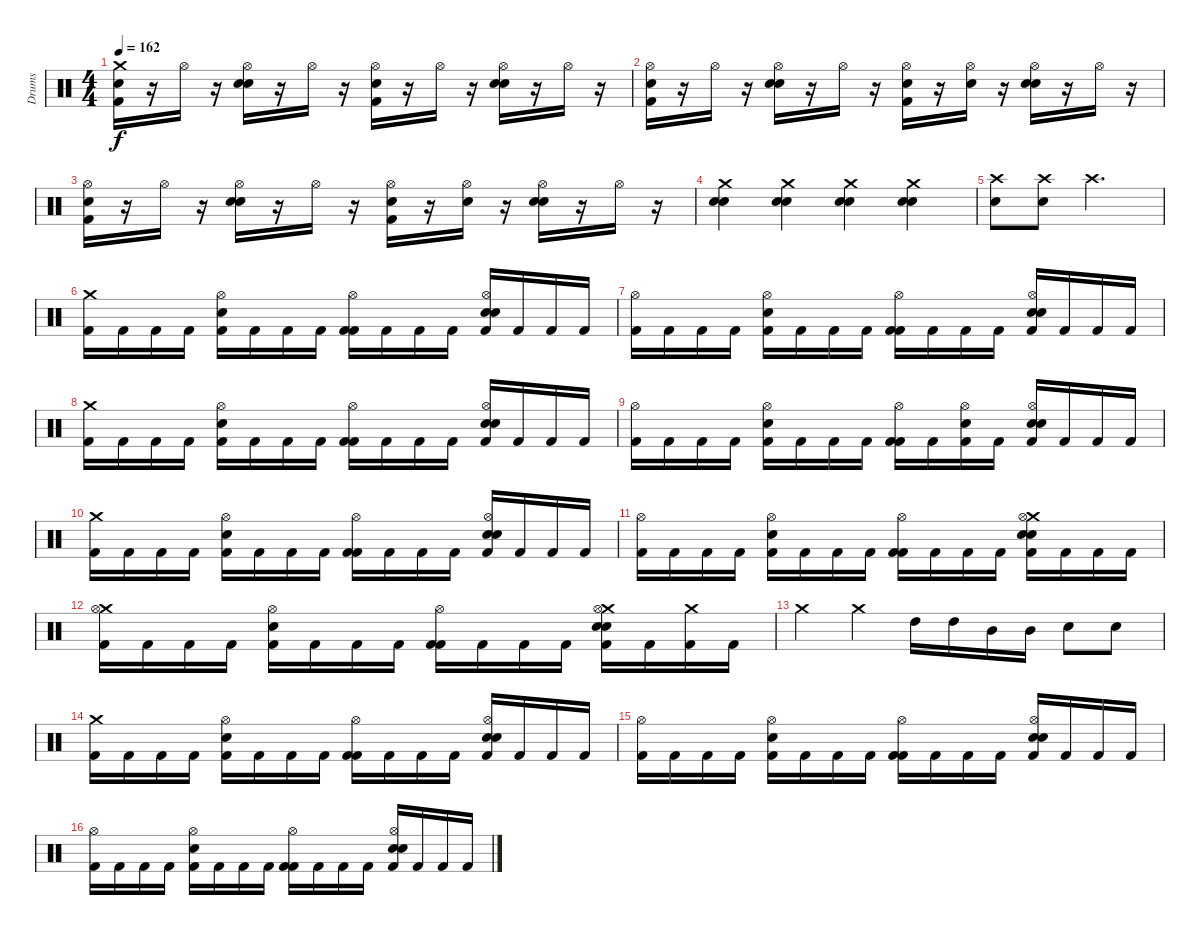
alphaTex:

\track ("Drums" "Drums") {instrument percussion}
\staff {score}
\articulation defaults
\ts (4 4)
\tempo 162
\clef neutral
\ks c
("Crash medium (hit)" "Electric Snare (hit)" "Kick (hit) 2").16{dy f} r.16 "Hi-Hat (open)".16 r.16 ("Electric Snare (hit)" "Hi-Hat (open)" "Snare (hit) 2").16 r.16 "Hi-Hat (open)".16 r.16 ("Electric Snare (hit)" "Hi-Hat (open)" "Kick (hit) 2").16 r.16 "Hi-Hat (open)".16 r.16 ("Electric Snare (hit)" "Hi-Hat (open)" "Snare (hit) 2").16 r.16 "Hi-Hat (open)".16 r.16 |
("Electric Snare (hit)" "Hi-Hat (open)" "Kick (hit) 2").16 r.16 "Hi-Hat (open)".16 r.16 ("Electric Snare (hit)" "Hi-Hat (open)" "Snare (hit) 2").16 r.16 "Hi-Hat (open)".16 r.16 ("Electric Snare (hit)" "Hi-Hat (open)" "Kick (hit) 2").16 r.16 ("Electric Snare (hit)" "Hi-Hat (open)").16 r.16 ("Electric Snare (hit)" "Hi-Hat (open)" "Snare (hit) 2").16 r.16 "Hi-Hat (open)".16 r.16 |
("Electric Snare (hit)" "Hi-Hat (open)" "Kick (hit) 2").16 r.16 "Hi-Hat (open)".16 r.16 ("Electric Snare (hit)" "Hi-Hat (open)" "Snare (hit) 2").16 r.16 "Hi-Hat (open)".16 r.16 ("Electric Snare (hit)" "Hi-Hat (open)" "Kick (hit) 2").16 r.16 ("Hi-Hat (open)" "Electric Snare (hit)").16 r.16 ("Electric Snare (hit)" "Hi-Hat (open)" "Snare (hit) 2").16 r.16 "Hi-Hat (open)".16 r.16 |
("Crash medium (hit)" "Electric Snare (hit)" "Electric Snare (hit)").4 ("Crash medium (hit)" "Electric Snare (hit)" "Electric Snare (hit)").4 ("Crash medium (hit)" "Electric Snare (hit)" "Electric Snare (hit)").4 ("Crash medium (hit)" "Electric Snare (hit)" "Electric Snare (hit)").4 |
("Crash high (hit)" "Electric Snare (hit)").8 ("Crash high (hit)" "Electric Snare (hit)").8 "Crash high (hit)".2{d} |
("Crash medium (hit)" "Kick (hit) 2").16 "Kick (hit) 2".16 "Kick (hit) 2".16 "Kick (hit) 2".16 ("Kick (hit) 2" "Electric Snare (hit)" "Hi-Hat (open)").16 "Kick (hit) 2".16 "Kick (hit) 2".16 "Kick (hit) 2".16 ("Kick (hit) 2" "Hi-Hat (open)" "Kick (hit) 2").16 "Kick (hit) 2".16 "Kick (hit) 2".16 "Kick (hit) 2".16 ("Kick (hit) 2" "Electric Snare (hit)" "Hi-Hat (open)" "Snare (hit) 2").16 "Kick (hit) 2".16 "Kick (hit) 2".16 "Kick (hit) 2".16 |
("Hi-Hat (open)" "Kick (hit) 2").16 "Kick (hit) 2".16 "Kick (hit) 2".16 "Kick (hit) 2".16 ("Kick (hit) 2" "Electric Snare (hit)" "Hi-Hat (open)").16 "Kick (hit) 2".16 "Kick (hit) 2".16 "Kick (hit) 2".16 ("Kick (hit) 2" "Hi-Hat (open)" "Kick (hit) 2").16 "Kick (hit) 2".16 "Kick (hit) 2".16 "Kick (hit) 2".16 ("Kick (hit) 2" "Electric Snare (hit)" "Hi-Hat (open)" "Snare (hit) 2").16 "Kick (hit) 2".16 "Kick (hit) 2".16 "Kick (hit) 2".16 |
("Crash medium (hit)" "Kick (hit) 2").16 "Kick (hit) 2".16 "Kick (hit) 2".16 "Kick (hit) 2".16 ("Kick (hit) 2" "Electric Snare (hit)" "Hi-Hat (open)").16 "Kick (hit) 2".16 "Kick (hit) 2".16 "Kick (hit) 2".16 ("Kick (hit) 2" "Hi-Hat (open)" "Kick (hit) 2").16 "Kick (hit) 2".16 "Kick (hit) 2".16 "Kick (hit) 2".16 ("Kick (hit) 2" "Electric Snare (hit)" "Hi-Hat (open)" "Snare (hit) 2").16 "Kick (hit) 2".16 "Kick (hit) 2".16 "Kick (hit) 2".16 |
("Hi-Hat (open)" "Kick (hit) 2").16 "Kick (hit) 2".16 "Kick (hit) 2".16 "Kick (hit) 2".16 ("Kick (hit) 2" "Electric Snare (hit)" "Hi-Hat (open)").16 "Kick (hit) 2".16 "Kick (hit) 2".16 "Kick (hit) 2".16 ("Kick (hit) 2" "Hi-Hat (open)" "Kick (hit) 2").16 "Kick (hit) 2".16 ("Kick (hit) 2" "Electric Snare (hit)" "Hi-Hat (open)").16 "Kick (hit) 2".16 ("Kick (hit) 2" "Electric Snare (hit)" "Hi-Hat (open)" "Snare (hit) 2").16 "Kick (hit) 2".16 "Kick (hit) 2".16 "Kick (hit) 2".16 |
("Crash medium (hit)" "Kick (hit) 2").16 "Kick (hit) 2".16 "Kick (hit) 2".16 "Kick (hit) 2".16 ("Kick (hit) 2" "Electric Snare (hit)" "Hi-Hat (open)").16 "Kick (hit) 2".16 "Kick (hit) 2".16 "Kick (hit) 2".16 ("Kick (hit) 2" "Hi-Hat (open)" "Kick (hit) 2").16 "Kick (hit) 2".16 "Kick (hit) 2".16 "Kick (hit) 2".16 ("Kick (hit) 2" "Electric Snare (hit)" "Hi-Hat (open)" "Snare (hit) 2").16 "Kick (hit) 2".16 "Kick (hit) 2".16 "Kick (hit) 2".16 |
("Hi-Hat (open)" "Kick (hit) 2").16 "Kick (hit) 2".16 "Kick (hit) 2".16 "Kick (hit) 2".16 ("Kick (hit) 2" "Electric Snare (hit)" "Hi-Hat (open)").16 "Kick (hit) 2".16 "Kick (hit) 2".16 "Kick (hit) 2".16 ("Kick (hit) 2" "Hi-Hat (open)" "Kick (hit) 2").16 "Kick (hit) 2".16 "Kick (hit) 2".16 "Kick (hit) 2".16 ("Crash medium (hit)" "Kick (hit) 2" "Electric Snare (hit)" "Hi-Hat (open)" "Snare (hit) 2").16 "Kick (hit) 2".16 "Kick (hit) 2".16 "Kick (hit) 2".16 |
("Crash medium (hit)" "Hi-Hat (open)" "Kick (hit) 2").16 "Kick (hit) 2".16 "Kick (hit) 2".16 "Kick (hit) 2".16 ("Kick (hit) 2" "Electric Snare (hit)" "Hi-Hat (open)").16 "Kick (hit) 2".16 "Kick (hit) 2".16 "Kick (hit) 2".16 ("Kick (hit) 2" "Hi-Hat (open)" "Kick (hit) 2").16 "Kick (hit) 2".16 "Kick (hit) 2".16 "Kick (hit) 2".16 ("Crash medium (hit)" "Kick (hit) 2" "Electric Snare (hit)" "Hi-Hat (open)" "Snare (hit) 2").16 "Kick (hit) 2".16 ("Crash medium (hit)" "Kick (hit) 2").16 "Kick (hit) 2".16 |
"Crash medium (hit)".4 "Crash medium (hit)".4 "High Tom (hit)".16 "High Tom (hit)".16 "Mid Tom (hit)".16 "Mid Tom (hit)".16 "Electric Snare (hit)".8 "Electric Snare (hit)".8 |
("Crash medium (hit)" "Kick (hit) 2").16 "Kick (hit) 2".16 "Kick (hit) 2".16 "Kick (hit) 2".16 ("Kick (hit) 2" "Electric Snare (hit)" "Hi-Hat (open)").16 "Kick (hit) 2".16 "Kick (hit) 2".16 "Kick (hit) 2".16 ("Kick (hit) 2" "Hi-Hat (open)" "Kick (hit) 2").16 "Kick (hit) 2".16 "Kick (hit) 2".16 "Kick (hit) 2".16 ("Kick (hit) 2" "Electric Snare (hit)" "Hi-Hat (open)" "Snare (hit) 2").16 "Kick (hit) 2".16 "Kick (hit) 2".16 "Kick (hit) 2".16 |
("Hi-Hat (open)" "Kick (hit) 2").16 "Kick (hit) 2".16 "Kick (hit) 2".16 "Kick (hit) 2".16 ("Kick (hit) 2" "Electric Snare (hit)" "Hi-Hat (open)").16 "Kick (hit) 2".16 "Kick (hit) 2".16 "Kick (hit) 2".16 ("Kick (hit) 2" "Hi-Hat (open)" "Kick (hit) 2").16 "Kick (hit) 2".16 "Kick (hit) 2".16 "Kick (hit) 2".16 ("Kick (hit) 2" "Electric Snare (hit)" "Hi-Hat (open)" "Snare (hit) 2").16 "Kick (hit) 2".16 "Kick (hit) 2".16 "Kick (hit) 2".16 |
("Hi-Hat (open)" "Kick (hit) 2").16 "Kick (hit) 2".16 "Kick (hit) 2".16 "Kick (hit) 2".16 ("Kick (hit) 2" "Electric Snare (hit)" "Hi-Hat (open)").16 "Kick (hit) 2".16 "Kick (hit) 2".16 "Kick (hit) 2".16 ("Kick (hit) 2" "Hi-Hat (open)" "Kick (hit) 2").16 "Kick (hit) 2".16 "Kick (hit) 2".16 "Kick (hit) 2".16 ("Kick (hit) 2" "Electric Snare (hit)" "Hi-Hat (open)" "Snare (hit) 2").16 "Kick (hit) 2".16 "Kick (hit) 2".16 "Kick (hit) 2".16
